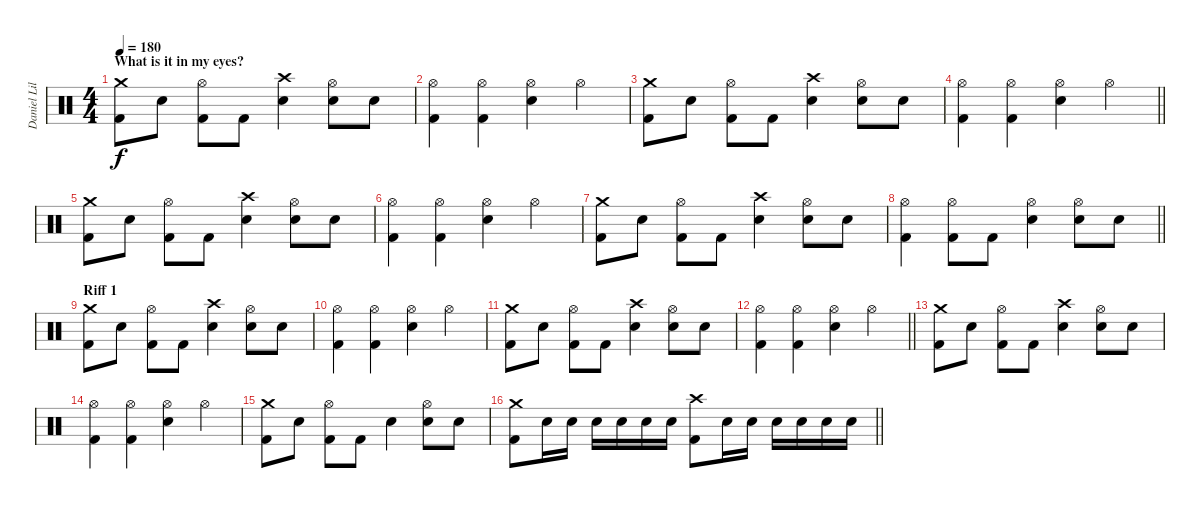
\track ("Daniel Liljekvist" "Daniel Lil") {instrument percussion}
\staff {score}
\articulation defaults
\ts (4 4)
\section ("" "What is it in my eyes?")
\tempo 180
\clef neutral
\ks c
("Crash medium (hit)" "Kick (hit) 2").8{dy f} "Electric Snare (hit)".8 ("Hi-Hat (open)" "Kick (hit) 2").8 "Kick (hit) 2".8 ("Crash high (hit)" "Electric Snare (hit)").4 ("Hi-Hat (open)" "Electric Snare (hit)").8 "Electric Snare (hit)".8 |
("Hi-Hat (open)" "Kick (hit) 2").4 ("Hi-Hat (open)" "Kick (hit) 2").4 ("Hi-Hat (open)" "Electric Snare (hit)").4 "Hi-Hat (open)".4 |
("Crash medium (hit)" "Kick (hit) 2").8 "Electric Snare (hit)".8 ("Hi-Hat (open)" "Kick (hit) 2").8 "Kick (hit) 2".8 ("Crash high (hit)" "Electric Snare (hit)").4 ("Hi-Hat (open)" "Electric Snare (hit)").8 "Electric Snare (hit)".8 |
\barLineRight lightlight
("Hi-Hat (open)" "Kick (hit) 2").4 ("Hi-Hat (open)" "Kick (hit) 2").4 ("Hi-Hat (open)" "Electric Snare (hit)").4 "Hi-Hat (open)".4 |
("Crash medium (hit)" "Kick (hit) 2").8 "Electric Snare (hit)".8 ("Hi-Hat (open)" "Kick (hit) 2").8 "Kick (hit) 2".8 ("Crash high (hit)" "Electric Snare (hit)").4 ("Hi-Hat (open)" "Electric Snare (hit)").8 "Electric Snare (hit)".8 |
("Hi-Hat (open)" "Kick (hit) 2").4 ("Hi-Hat (open)" "Kick (hit) 2").4 ("Hi-Hat (open)" "Electric Snare (hit)").4 "Hi-Hat (open)".4 |
("Crash medium (hit)" "Kick (hit) 2").8 "Electric Snare (hit)".8 ("Hi-Hat (open)" "Kick (hit) 2").8 "Kick (hit) 2".8 ("Crash high (hit)" "Electric Snare (hit)").4 ("Hi-Hat (open)" "Electric Snare (hit)").8 "Electric Snare (hit)".8 |
\barLineRight lightlight
("Hi-Hat (open)" "Kick (hit) 2").4 ("Hi-Hat (open)" "Kick (hit) 2").8 "Kick (hit) 2".8 ("Hi-Hat (open)" "Electric Snare (hit)").4 ("Hi-Hat (open)" "Electric Snare (hit)").8 "Electric Snare (hit)".8 |
\section ("" "Riff 1")
("Crash medium (hit)" "Kick (hit) 2").8 "Electric Snare (hit)".8 ("Hi-Hat (open)" "Kick (hit) 2").8 "Kick (hit) 2".8 ("Crash high (hit)" "Electric Snare (hit)").4 ("Hi-Hat (open)" "Electric Snare (hit)").8 "Electric Snare (hit)".8 |
("Hi-Hat (open)" "Kick (hit) 2").4 ("Hi-Hat (open)" "Kick (hit) 2").4 ("Hi-Hat (open)" "Electric Snare (hit)").4 "Hi-Hat (open)".4 |
("Crash medium (hit)" "Kick (hit) 2").8 "Electric Snare (hit)".8 ("Hi-Hat (open)" "Kick (hit) 2").8 "Kick (hit) 2".8 ("Crash high (hit)" "Electric Snare (hit)").4 ("Hi-Hat (open)" "Electric Snare (hit)").8 "Electric Snare (hit)".8 |
\barLineRight lightlight
("Hi-Hat (open)" "Kick (hit) 2").4 ("Hi-Hat (open)" "Kick (hit) 2").4 ("Hi-Hat (open)" "Electric Snare (hit)").4 "Hi-Hat (open)".4 |
("Crash medium (hit)" "Kick (hit) 2").8 "Electric Snare (hit)".8 ("Hi-Hat (open)" "Kick (hit) 2").8 "Kick (hit) 2".8 ("Crash high (hit)" "Electric Snare (hit)").4 ("Hi-Hat (open)" "Electric Snare (hit)").8 "Electric Snare (hit)".8 |
("Hi-Hat (open)" "Kick (hit) 2").4 ("Hi-Hat (open)" "Kick (hit) 2").4 ("Hi-Hat (open)" "Electric Snare (hit)").4 "Hi-Hat (open)".4 |
("Crash medium (hit)" "Kick (hit) 2").8 "Electric Snare (hit)".8 ("Hi-Hat (open)" "Kick (hit) 2").8 "Kick (hit) 2".8 "Electric Snare (hit)".4 ("Hi-Hat (open)" "Electric Snare (hit)").8 "Electric Snare (hit)".8 |
\barLineRight lightlight
("Crash medium (hit)" "Kick (hit) 2").8 "Electric Snare (hit)".16 "Electric Snare (hit)".16 "Electric Snare (hit)".16 "Electric Snare (hit)".16 "Electric Snare (hit)".16 "Electric Snare (hit)".16 ("Crash high (hit)" "Kick (hit) 2").8 "Electric Snare (hit)".16 "Electric Snare (hit)".16 "Electric Snare (hit)".16 "Electric Snare (hit)".16 "Electric Snare (hit)".16 "Electric Snare (hit)".16
